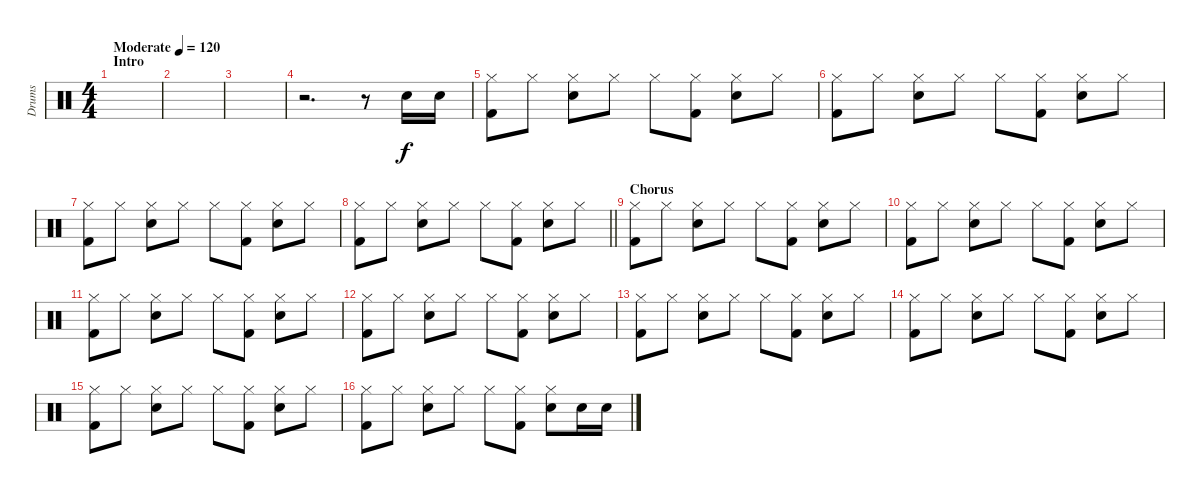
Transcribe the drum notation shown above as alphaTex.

\track ("Drums" "Drums") {instrument percussion}
\staff {score}
\articulation defaults
\ts (4 4)
\section ("" "Intro")
\tempo (120 "Moderate")
\clef neutral
\ks c
|
|
|
r.2{d} r.8 "Snare (hit) 2".16 "Snare (hit) 2".16 |
("Hi-Hat (closed)" "Kick (hit) 2").8 "Hi-Hat (closed)".8 ("Hi-Hat (closed)" "Snare (hit) 2").8 "Hi-Hat (closed)".8 "Hi-Hat (closed)".8 ("Hi-Hat (closed)" "Kick (hit) 2").8 ("Hi-Hat (closed)" "Snare (hit) 2").8 "Hi-Hat (closed)".8 |
("Hi-Hat (closed)" "Kick (hit) 2").8 "Hi-Hat (closed)".8 ("Hi-Hat (closed)" "Snare (hit) 2").8 "Hi-Hat (closed)".8 "Hi-Hat (closed)".8 ("Hi-Hat (closed)" "Kick (hit) 2").8 ("Hi-Hat (closed)" "Snare (hit) 2").8 "Hi-Hat (closed)".8 |
("Hi-Hat (closed)" "Kick (hit) 2").8 "Hi-Hat (closed)".8 ("Hi-Hat (closed)" "Snare (hit) 2").8 "Hi-Hat (closed)".8 "Hi-Hat (closed)".8 ("Hi-Hat (closed)" "Kick (hit) 2").8 ("Hi-Hat (closed)" "Snare (hit) 2").8 "Hi-Hat (closed)".8 |
\barLineRight lightlight
("Hi-Hat (closed)" "Kick (hit) 2").8 "Hi-Hat (closed)".8 ("Hi-Hat (closed)" "Snare (hit) 2").8 "Hi-Hat (closed)".8 "Hi-Hat (closed)".8 ("Hi-Hat (closed)" "Kick (hit) 2").8 ("Hi-Hat (closed)" "Snare (hit) 2").8 "Hi-Hat (closed)".8 |
\section ("" "Chorus")
("Hi-Hat (closed)" "Kick (hit) 2").8 "Hi-Hat (closed)".8 ("Hi-Hat (closed)" "Snare (hit) 2").8 "Hi-Hat (closed)".8 "Hi-Hat (closed)".8 ("Hi-Hat (closed)" "Kick (hit) 2").8 ("Hi-Hat (closed)" "Snare (hit) 2").8 "Hi-Hat (closed)".8 |
("Hi-Hat (closed)" "Kick (hit) 2").8 "Hi-Hat (closed)".8 ("Hi-Hat (closed)" "Snare (hit) 2").8 "Hi-Hat (closed)".8 "Hi-Hat (closed)".8 ("Hi-Hat (closed)" "Kick (hit) 2").8 ("Hi-Hat (closed)" "Snare (hit) 2").8 "Hi-Hat (closed)".8 |
("Hi-Hat (closed)" "Kick (hit) 2").8 "Hi-Hat (closed)".8 ("Hi-Hat (closed)" "Snare (hit) 2").8 "Hi-Hat (closed)".8 "Hi-Hat (closed)".8 ("Hi-Hat (closed)" "Kick (hit) 2").8 ("Hi-Hat (closed)" "Snare (hit) 2").8 "Hi-Hat (closed)".8 |
("Hi-Hat (closed)" "Kick (hit) 2").8 "Hi-Hat (closed)".8 ("Hi-Hat (closed)" "Snare (hit) 2").8 "Hi-Hat (closed)".8 "Hi-Hat (closed)".8 ("Hi-Hat (closed)" "Kick (hit) 2").8 ("Hi-Hat (closed)" "Snare (hit) 2").8 "Hi-Hat (closed)".8 |
("Hi-Hat (closed)" "Kick (hit) 2").8 "Hi-Hat (closed)".8 ("Hi-Hat (closed)" "Snare (hit) 2").8 "Hi-Hat (closed)".8 "Hi-Hat (closed)".8 ("Hi-Hat (closed)" "Kick (hit) 2").8 ("Hi-Hat (closed)" "Snare (hit) 2").8 "Hi-Hat (closed)".8 |
("Hi-Hat (closed)" "Kick (hit) 2").8 "Hi-Hat (closed)".8 ("Hi-Hat (closed)" "Snare (hit) 2").8 "Hi-Hat (closed)".8 "Hi-Hat (closed)".8 ("Hi-Hat (closed)" "Kick (hit) 2").8 ("Hi-Hat (closed)" "Snare (hit) 2").8 "Hi-Hat (closed)".8 |
("Hi-Hat (closed)" "Kick (hit) 2").8 "Hi-Hat (closed)".8 ("Hi-Hat (closed)" "Snare (hit) 2").8 "Hi-Hat (closed)".8 "Hi-Hat (closed)".8 ("Hi-Hat (closed)" "Kick (hit) 2").8 ("Hi-Hat (closed)" "Snare (hit) 2").8 "Hi-Hat (closed)".8 |
("Hi-Hat (closed)" "Kick (hit) 2").8 "Hi-Hat (closed)".8 ("Hi-Hat (closed)" "Snare (hit) 2").8 "Hi-Hat (closed)".8 "Hi-Hat (closed)".8 ("Hi-Hat (closed)" "Kick (hit) 2").8 ("Hi-Hat (closed)" "Snare (hit) 2").8 "Snare (hit) 2".16 "Snare (hit) 2".16
